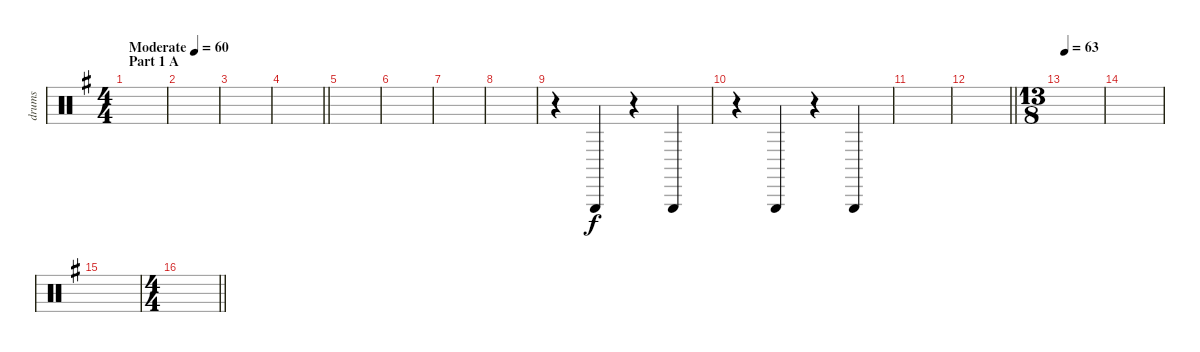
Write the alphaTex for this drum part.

\track ("drums" "drums") {instrument percussion}
\staff {score}
\articulation defaults
\ts (4 4)
\section ("" "Part 1 A")
\tempo (60 "Moderate")
\clef neutral
\ks g
|
|
|
\barLineRight lightlight
|
|
|
|
|
r.4 "Triangle (hit)".4 r.4 "Triangle (hit)".4 |
r.4 "Triangle (hit)".4 r.4 "Triangle (hit)".4 |
|
\barLineRight lightlight
|
\ts (13 8)
\tempo 63
|
|
|
\ts (4 4)
\barLineRight lightlight
